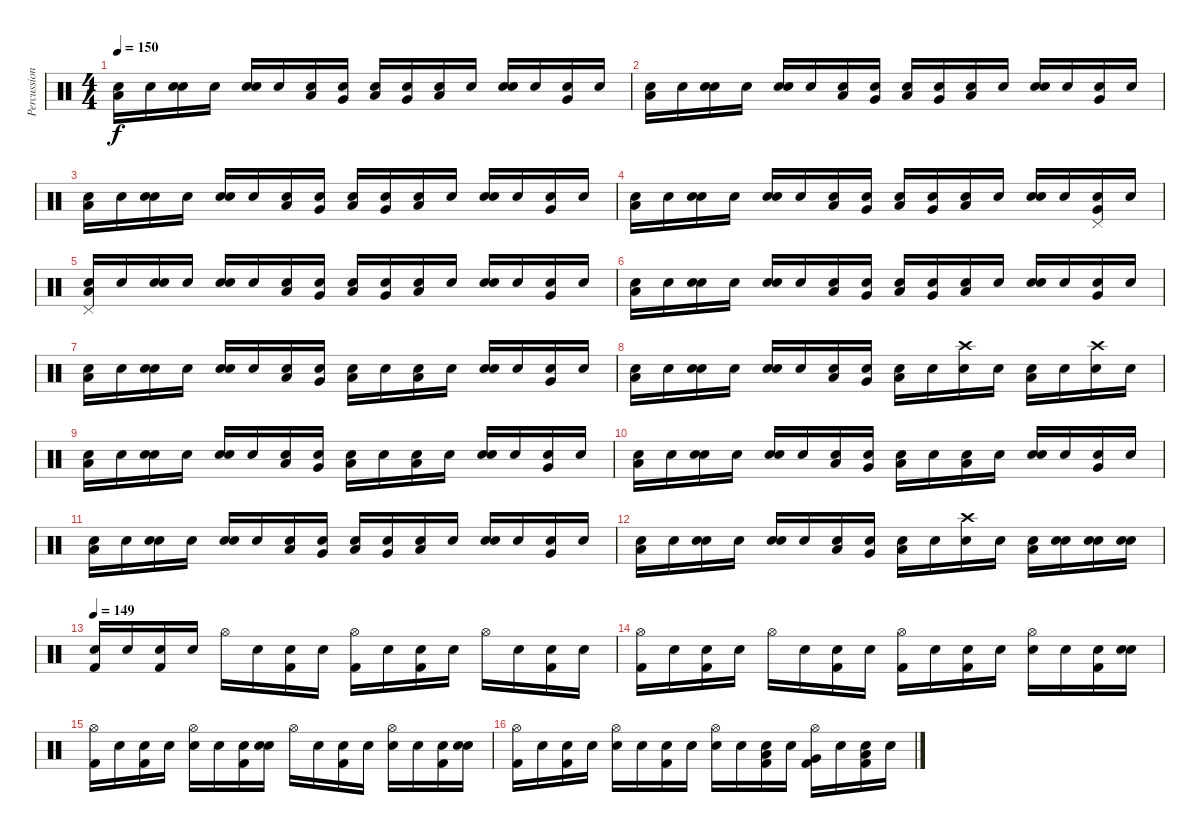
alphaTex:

\track ("Percussion" "Percussion") {instrument percussion}
\staff {score}
\articulation defaults
\ts (4 4)
\tempo 150
\clef neutral
\ks c
("Snare (hit)" "Low Floor Tom (hit)").16{dy f} "Snare (hit)".16 ("Snare (hit)" "Snare (hit)").16 "Snare (hit)".16 ("Snare (hit)" "Electric Snare (hit)").16 "Snare (hit)".16 ("Snare (hit)" "Low Tom (hit)").16 ("Snare (hit)" "Very Low Tom (hit)").16 ("Snare (hit)" "Low Floor Tom (hit)").16 ("Snare (hit)" "Very Low Tom (hit)").16 ("Snare (hit)" "Low Floor Tom (hit)").16 "Snare (hit)".16 ("Snare (hit)" "Electric Snare (hit)").16 "Snare (hit)".16 ("Snare (hit)" "Very Low Tom (hit)").16 "Snare (hit)".16 |
("Snare (hit)" "Low Floor Tom (hit)").16 "Snare (hit)".16 ("Snare (hit)" "Snare (hit)").16 "Snare (hit)".16 ("Snare (hit)" "Electric Snare (hit)").16 "Snare (hit)".16 ("Snare (hit)" "Low Tom (hit)").16 ("Snare (hit)" "Very Low Tom (hit)").16 ("Snare (hit)" "Low Floor Tom (hit)").16 ("Snare (hit)" "Very Low Tom (hit)").16 ("Snare (hit)" "Low Floor Tom (hit)").16 "Snare (hit)".16 ("Snare (hit)" "Electric Snare (hit)").16 "Snare (hit)".16 ("Snare (hit)" "Very Low Tom (hit)").16 "Snare (hit)".16 |
("Snare (hit)" "Low Floor Tom (hit)").16 "Snare (hit)".16 ("Snare (hit)" "Snare (hit)").16 "Snare (hit)".16 ("Snare (hit)" "Electric Snare (hit)").16 "Snare (hit)".16 ("Snare (hit)" "Low Tom (hit)").16 ("Snare (hit)" "Very Low Tom (hit)").16 ("Snare (hit)" "Low Floor Tom (hit)").16 ("Snare (hit)" "Very Low Tom (hit)").16 ("Snare (hit)" "Low Floor Tom (hit)").16 "Snare (hit)".16 ("Snare (hit)" "Electric Snare (hit)").16 "Snare (hit)".16 ("Snare (hit)" "Very Low Tom (hit)").16 "Snare (hit)".16 |
("Snare (hit)" "Low Floor Tom (hit)").16 "Snare (hit)".16 ("Snare (hit)" "Snare (hit)").16 "Snare (hit)".16 ("Snare (hit)" "Electric Snare (hit)").16 "Snare (hit)".16 ("Snare (hit)" "Low Tom (hit)").16 ("Snare (hit)" "Very Low Tom (hit)").16 ("Snare (hit)" "Low Floor Tom (hit)").16 ("Snare (hit)" "Very Low Tom (hit)").16 ("Snare (hit)" "Low Floor Tom (hit)").16 "Snare (hit)".16 ("Snare (hit)" "Electric Snare (hit)").16 "Snare (hit)".16 ("Snare (hit)" "Pedal Hi-Hat (hit)" "Very Low Tom (hit)").16 "Snare (hit)".16 |
("Snare (hit)" "Pedal Hi-Hat (hit)" "Low Floor Tom (hit)").16 "Snare (hit)".16 ("Snare (hit)" "Snare (hit)").16 "Snare (hit)".16 ("Snare (hit)" "Electric Snare (hit)").16 "Snare (hit)".16 ("Snare (hit)" "Low Tom (hit)").16 ("Snare (hit)" "Very Low Tom (hit)").16 ("Snare (hit)" "Low Floor Tom (hit)").16 ("Snare (hit)" "Very Low Tom (hit)").16 ("Snare (hit)" "Low Floor Tom (hit)").16 "Snare (hit)".16 ("Snare (hit)" "Electric Snare (hit)").16 "Snare (hit)".16 ("Snare (hit)" "Very Low Tom (hit)").16 "Snare (hit)".16 |
("Snare (hit)" "Low Floor Tom (hit)").16 "Snare (hit)".16 ("Snare (hit)" "Snare (hit)").16 "Snare (hit)".16 ("Snare (hit)" "Electric Snare (hit)").16 "Snare (hit)".16 ("Snare (hit)" "Low Tom (hit)").16 ("Snare (hit)" "Very Low Tom (hit)").16 ("Snare (hit)" "Low Floor Tom (hit)").16 ("Snare (hit)" "Very Low Tom (hit)").16 ("Snare (hit)" "Low Floor Tom (hit)").16 "Snare (hit)".16 ("Snare (hit)" "Electric Snare (hit)").16 "Snare (hit)".16 ("Snare (hit)" "Very Low Tom (hit)").16 "Snare (hit)".16 |
("Snare (hit)" "Low Floor Tom (hit)").16 "Snare (hit)".16 ("Snare (hit)" "Snare (hit)").16 "Snare (hit)".16 ("Snare (hit)" "Electric Snare (hit)").16 "Snare (hit)".16 ("Snare (hit)" "Low Tom (hit)").16 ("Snare (hit)" "Very Low Tom (hit)").16 ("Snare (hit)" "Low Floor Tom (hit)").16 "Snare (hit)".16 ("Snare (hit)" "Low Floor Tom (hit)").16 "Snare (hit)".16 ("Snare (hit)" "Electric Snare (hit)").16 "Snare (hit)".16 ("Snare (hit)" "Very Low Tom (hit)").16 "Snare (hit)".16 |
("Snare (hit)" "Low Floor Tom (hit)").16 "Snare (hit)".16 ("Snare (hit)" "Snare (hit)").16 "Snare (hit)".16 ("Snare (hit)" "Electric Snare (hit)").16 "Snare (hit)".16 ("Snare (hit)" "Low Tom (hit)").16 ("Snare (hit)" "Very Low Tom (hit)").16 ("Snare (hit)" "Low Floor Tom (hit)").16 "Snare (hit)".16 ("Snare (hit)" "Crash high (hit)").16 "Snare (hit)".16 ("Snare (hit)" "Low Floor Tom (hit)").16 "Snare (hit)".16 ("Snare (hit)" "Crash high (hit)").16 "Snare (hit)".16 |
("Snare (hit)" "Low Floor Tom (hit)").16 "Snare (hit)".16 ("Snare (hit)" "Snare (hit)").16 "Snare (hit)".16 ("Snare (hit)" "Electric Snare (hit)").16 "Snare (hit)".16 ("Snare (hit)" "Low Tom (hit)").16 ("Snare (hit)" "Very Low Tom (hit)").16 ("Snare (hit)" "Low Floor Tom (hit)").16 "Snare (hit)".16 ("Snare (hit)" "Low Floor Tom (hit)").16 "Snare (hit)".16 ("Snare (hit)" "Electric Snare (hit)").16 "Snare (hit)".16 ("Snare (hit)" "Very Low Tom (hit)").16 "Snare (hit)".16 |
("Snare (hit)" "Low Floor Tom (hit)").16 "Snare (hit)".16 ("Snare (hit)" "Snare (hit)").16 "Snare (hit)".16 ("Snare (hit)" "Electric Snare (hit)").16 "Snare (hit)".16 ("Snare (hit)" "Low Tom (hit)").16 ("Snare (hit)" "Very Low Tom (hit)").16 ("Snare (hit)" "Low Floor Tom (hit)").16 "Snare (hit)".16 ("Snare (hit)" "Low Floor Tom (hit)").16 "Snare (hit)".16 ("Snare (hit)" "Electric Snare (hit)").16 "Snare (hit)".16 ("Snare (hit)" "Very Low Tom (hit)").16 "Snare (hit)".16 |
("Snare (hit)" "Low Floor Tom (hit)").16 "Snare (hit)".16 ("Snare (hit)" "Snare (hit)").16 "Snare (hit)".16 ("Snare (hit)" "Electric Snare (hit)").16 "Snare (hit)".16 ("Snare (hit)" "Low Tom (hit)").16 ("Snare (hit)" "Very Low Tom (hit)").16 ("Snare (hit)" "Low Floor Tom (hit)").16 ("Snare (hit)" "Very Low Tom (hit)").16 ("Snare (hit)" "Low Floor Tom (hit)").16 "Snare (hit)".16 ("Snare (hit)" "Electric Snare (hit)").16 "Snare (hit)".16 ("Snare (hit)" "Very Low Tom (hit)").16 "Snare (hit)".16 |
("Snare (hit)" "Low Floor Tom (hit)").16 "Snare (hit)".16 ("Snare (hit)" "Snare (hit)").16 "Snare (hit)".16 ("Snare (hit)" "Electric Snare (hit)").16 "Snare (hit)".16 ("Snare (hit)" "Low Tom (hit)").16 ("Snare (hit)" "Very Low Tom (hit)").16 ("Snare (hit)" "Low Floor Tom (hit)").16 "Snare (hit)".16 ("Snare (hit)" "Crash high (hit)").16 "Snare (hit)".16 ("Snare (hit)" "Low Floor Tom (hit)").16 ("Snare (hit)" "Electric Snare (hit)").16 ("Snare (hit)" "Electric Snare (hit)").16 ("Snare (hit)" "Electric Snare (hit)").16 |
\tempo 149
("Snare (hit)" "Kick (hit) 2").16 "Snare (hit)".16 ("Snare (hit)" "Kick (hit) 2").16 "Snare (hit)".16 "Hi-Hat (open)".16 "Snare (hit)".16 ("Snare (hit)" "Kick (hit) 2").16 "Snare (hit)".16 ("Hi-Hat (open)" "Kick (hit) 2").16 "Snare (hit)".16 ("Snare (hit)" "Kick (hit) 2").16 "Snare (hit)".16 "Hi-Hat (open)".16 "Snare (hit)".16 ("Snare (hit)" "Kick (hit) 2").16 "Snare (hit)".16 |
("Hi-Hat (open)" "Kick (hit) 2").16 "Snare (hit)".16 ("Snare (hit)" "Kick (hit) 2").16 "Snare (hit)".16 "Hi-Hat (open)".16 "Snare (hit)".16 ("Snare (hit)" "Kick (hit) 2").16 "Snare (hit)".16 ("Hi-Hat (open)" "Kick (hit) 2").16 "Snare (hit)".16 ("Snare (hit)" "Kick (hit) 2").16 "Snare (hit)".16 ("Hi-Hat (open)" "Electric Snare (hit)").16 "Snare (hit)".16 ("Snare (hit)" "Kick (hit) 2").16 ("Snare (hit)" "Electric Snare (hit)").16 |
("Hi-Hat (open)" "Kick (hit) 2").16 "Snare (hit)".16 ("Snare (hit)" "Kick (hit) 2").16 "Snare (hit)".16 ("Hi-Hat (open)" "Electric Snare (hit)").16 "Snare (hit)".16 ("Snare (hit)" "Kick (hit) 2").16 ("Snare (hit)" "Electric Snare (hit)").16 "Hi-Hat (open)".16 "Snare (hit)".16 ("Snare (hit)" "Kick (hit) 2").16 "Snare (hit)".16 ("Hi-Hat (open)" "Electric Snare (hit)").16 "Snare (hit)".16 ("Snare (hit)" "Kick (hit) 2").16 ("Snare (hit)" "Electric Snare (hit)").16 |
("Hi-Hat (open)" "Kick (hit) 2").16 "Snare (hit)".16 ("Snare (hit)" "Kick (hit) 2").16 "Snare (hit)".16 ("Hi-Hat (open)" "Electric Snare (hit)").16 "Snare (hit)".16 ("Snare (hit)" "Kick (hit) 2").16 "Snare (hit)".16 ("Hi-Hat (open)" "Electric Snare (hit)").16 "Snare (hit)".16 ("Snare (hit)" "Low Tom (hit)" "Kick (hit) 2").16 "Snare (hit)".16 ("Hi-Hat (open)" "Very Low Tom (hit)" "Kick (hit) 2").16 "Snare (hit)".16 ("Snare (hit)" "Low Floor Tom (hit)" "Kick (hit) 2").16 "Snare (hit)".16
